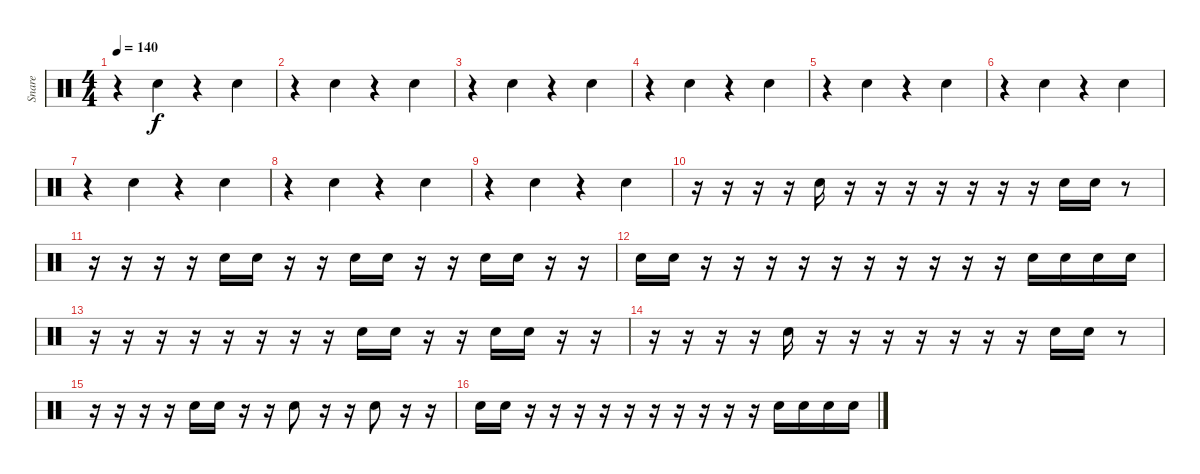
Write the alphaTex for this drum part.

\track ("Snare" "Snare") {instrument percussion}
\staff {score}
\articulation defaults
\ts (4 4)
\tempo 140
\clef neutral
\ks c
r.4{dy f} "Snare (hit) 2".4 r.4 "Snare (hit) 2".4 |
r.4 "Snare (hit) 2".4 r.4 "Snare (hit) 2".4 |
r.4 "Snare (hit) 2".4 r.4 "Snare (hit) 2".4 |
r.4 "Snare (hit) 2".4 r.4 "Snare (hit) 2".4 |
r.4 "Snare (hit) 2".4 r.4 "Snare (hit) 2".4 |
r.4 "Snare (hit) 2".4 r.4 "Snare (hit) 2".4 |
r.4 "Snare (hit) 2".4 r.4 "Snare (hit) 2".4 |
r.4 "Snare (hit) 2".4 r.4 "Snare (hit) 2".4 |
r.4 "Snare (hit) 2".4 r.4 "Snare (hit) 2".4 |
r.16 r.16 r.16 r.16 "Snare (hit) 2".16 r.16 r.16 r.16 r.16 r.16 r.16 r.16 "Snare (hit) 2".16 "Snare (hit) 2".16 r.8 |
r.16 r.16 r.16 r.16 "Snare (hit) 2".16 "Snare (hit) 2".16 r.16 r.16 "Snare (hit) 2".16 "Snare (hit) 2".16 r.16 r.16 "Snare (hit) 2".16 "Snare (hit) 2".16 r.16 r.16 |
"Snare (hit) 2".16 "Snare (hit) 2".16 r.16 r.16 r.16 r.16 r.16 r.16 r.16 r.16 r.16 r.16 "Snare (hit) 2".16 "Snare (hit) 2".16 "Snare (hit) 2".16 "Snare (hit) 2".16 |
r.16 r.16 r.16 r.16 r.16 r.16 r.16 r.16 "Snare (hit) 2".16 "Snare (hit) 2".16 r.16 r.16 "Snare (hit) 2".16 "Snare (hit) 2".16 r.16 r.16 |
r.16 r.16 r.16 r.16 "Snare (hit) 2".16 r.16 r.16 r.16 r.16 r.16 r.16 r.16 "Snare (hit) 2".16 "Snare (hit) 2".16 r.8 |
r.16 r.16 r.16 r.16 "Snare (hit) 2".16 "Snare (hit) 2".16 r.16 r.16 "Snare (hit) 2".8 r.16 r.16 "Snare (hit) 2".8 r.16 r.16 |
"Snare (hit) 2".16 "Snare (hit) 2".16 r.16 r.16 r.16 r.16 r.16 r.16 r.16 r.16 r.16 r.16 "Snare (hit) 2".16 "Snare (hit) 2".16 "Snare (hit) 2".16 "Snare (hit) 2".16
